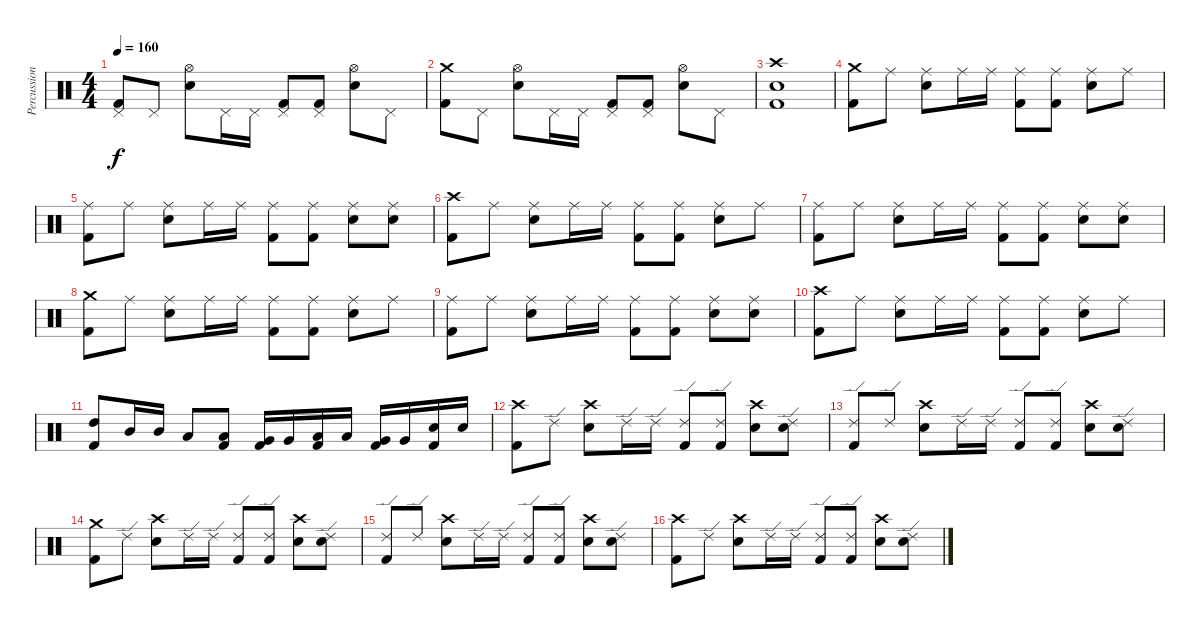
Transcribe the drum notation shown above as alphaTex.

\track ("Percussion" "Percussion") {instrument percussion}
\staff {score}
\articulation defaults
\ts (4 4)
\tempo 160
\clef neutral
\ks c
("Pedal Hi-Hat (hit)" "Kick (hit) 2").8{dy f} "Pedal Hi-Hat (hit)".8 ("Hi-Hat (open)" "Electric Snare (hit)").8 "Pedal Hi-Hat (hit)".16 "Pedal Hi-Hat (hit)".16 ("Pedal Hi-Hat (hit)" "Kick (hit) 2").8 ("Pedal Hi-Hat (hit)" "Kick (hit) 2").8 ("Hi-Hat (open)" "Electric Snare (hit)").8 "Pedal Hi-Hat (hit)".8 |
("Crash medium (hit)" "Kick (hit) 2").8 "Pedal Hi-Hat (hit)".8 ("Hi-Hat (open)" "Electric Snare (hit)").8 "Pedal Hi-Hat (hit)".16 "Pedal Hi-Hat (hit)".16 ("Pedal Hi-Hat (hit)" "Kick (hit) 2").8 ("Pedal Hi-Hat (hit)" "Kick (hit) 2").8 ("Hi-Hat (open)" "Electric Snare (hit)").8 "Pedal Hi-Hat (hit)".8 |
("Crash high (hit)" "Electric Snare (hit)" "Kick (hit) 2").1 |
("Crash medium (hit)" "Kick (hit) 2").8 "Ride (middle)".8 ("Ride (middle)" "Electric Snare (hit)").8 "Ride (middle)".16 "Ride (middle)".16 ("Ride (middle)" "Kick (hit) 2").8 ("Ride (middle)" "Kick (hit) 2").8 ("Ride (middle)" "Electric Snare (hit)").8 "Ride (middle)".8 |
("Ride (middle)" "Kick (hit) 2").8 "Ride (middle)".8 ("Ride (middle)" "Electric Snare (hit)").8 "Ride (middle)".16 "Ride (middle)".16 ("Ride (middle)" "Kick (hit) 2").8 ("Ride (middle)" "Kick (hit) 2").8 ("Ride (middle)" "Electric Snare (hit)").8 ("Ride (middle)" "Electric Snare (hit)").8 |
("Crash high (hit)" "Kick (hit) 2").8 "Ride (middle)".8 ("Ride (middle)" "Electric Snare (hit)").8 "Ride (middle)".16 "Ride (middle)".16 ("Ride (middle)" "Kick (hit) 2").8 ("Ride (middle)" "Kick (hit) 2").8 ("Ride (middle)" "Electric Snare (hit)").8 "Ride (middle)".8 |
("Ride (middle)" "Kick (hit) 2").8 "Ride (middle)".8 ("Ride (middle)" "Electric Snare (hit)").8 "Ride (middle)".16 "Ride (middle)".16 ("Ride (middle)" "Kick (hit) 2").8 ("Ride (middle)" "Kick (hit) 2").8 ("Ride (middle)" "Electric Snare (hit)").8 ("Ride (middle)" "Electric Snare (hit)").8 |
("Crash medium (hit)" "Kick (hit) 2").8 "Ride (middle)".8 ("Ride (middle)" "Electric Snare (hit)").8 "Ride (middle)".16 "Ride (middle)".16 ("Ride (middle)" "Kick (hit) 2").8 ("Ride (middle)" "Kick (hit) 2").8 ("Ride (middle)" "Electric Snare (hit)").8 "Ride (middle)".8 |
("Ride (middle)" "Kick (hit) 2").8 "Ride (middle)".8 ("Ride (middle)" "Electric Snare (hit)").8 "Ride (middle)".16 "Ride (middle)".16 ("Ride (middle)" "Kick (hit) 2").8 ("Ride (middle)" "Kick (hit) 2").8 ("Ride (middle)" "Electric Snare (hit)").8 ("Ride (middle)" "Electric Snare (hit)").8 |
("Crash high (hit)" "Kick (hit) 2").8 "Ride (middle)".8 ("Ride (middle)" "Electric Snare (hit)").8 "Ride (middle)".16 "Ride (middle)".16 ("Ride (middle)" "Kick (hit) 2").8 ("Ride (middle)" "Kick (hit) 2").8 ("Ride (middle)" "Electric Snare (hit)").8 "Ride (middle)".8 |
("High Tom (hit)" "Kick (hit) 2").8 "Mid Tom (hit)".16 "Mid Tom (hit)".16 "Low Tom (hit)".8 ("Low Tom (hit)" "Kick (hit) 2").8 ("Very Low Tom (hit)" "Kick (hit) 2").16 "Very Low Tom (hit)".16 ("Low Floor Tom (hit)" "Kick (hit) 2").16 "Low Floor Tom (hit)".16 ("Very Low Tom (hit)" "Kick (hit) 2").16 "Very Low Tom (hit)".16 ("Electric Snare (hit)" "Kick (hit) 2").16 "Electric Snare (hit)".16 |
("Crash high (hit)" "Kick (hit) 2").8 "Ride (edge) 2".8 ("Crash high (hit)" "Electric Snare (hit)").8 "Ride (edge) 2".16 "Ride (edge) 2".16 ("Ride (edge) 2" "Kick (hit) 2").8 ("Ride (edge) 2" "Kick (hit) 2").8 ("Crash high (hit)" "Electric Snare (hit)").8 ("Ride (edge) 2" "Electric Snare (hit)").8 |
("Ride (edge) 2" "Kick (hit) 2").8 "Ride (edge) 2".8 ("Crash high (hit)" "Electric Snare (hit)").8 "Ride (edge) 2".16 "Ride (edge) 2".16 ("Ride (edge) 2" "Kick (hit) 2").8 ("Ride (edge) 2" "Kick (hit) 2").8 ("Crash high (hit)" "Electric Snare (hit)").8 ("Ride (edge) 2" "Electric Snare (hit)").8 |
("Crash medium (hit)" "Kick (hit) 2").8 "Ride (edge) 2".8 ("Crash high (hit)" "Electric Snare (hit)").8 "Ride (edge) 2".16 "Ride (edge) 2".16 ("Ride (edge) 2" "Kick (hit) 2").8 ("Ride (edge) 2" "Kick (hit) 2").8 ("Crash high (hit)" "Electric Snare (hit)").8 ("Ride (edge) 2" "Electric Snare (hit)").8 |
("Ride (edge) 2" "Kick (hit) 2").8 "Ride (edge) 2".8 ("Crash high (hit)" "Electric Snare (hit)").8 "Ride (edge) 2".16 "Ride (edge) 2".16 ("Ride (edge) 2" "Kick (hit) 2").8 ("Ride (edge) 2" "Kick (hit) 2").8 ("Crash high (hit)" "Electric Snare (hit)").8 ("Ride (edge) 2" "Electric Snare (hit)").8 |
("Crash high (hit)" "Kick (hit) 2").8 "Ride (edge) 2".8 ("Crash high (hit)" "Electric Snare (hit)").8 "Ride (edge) 2".16 "Ride (edge) 2".16 ("Ride (edge) 2" "Kick (hit) 2").8 ("Ride (edge) 2" "Kick (hit) 2").8 ("Crash high (hit)" "Electric Snare (hit)").8 ("Ride (edge) 2" "Electric Snare (hit)").8
